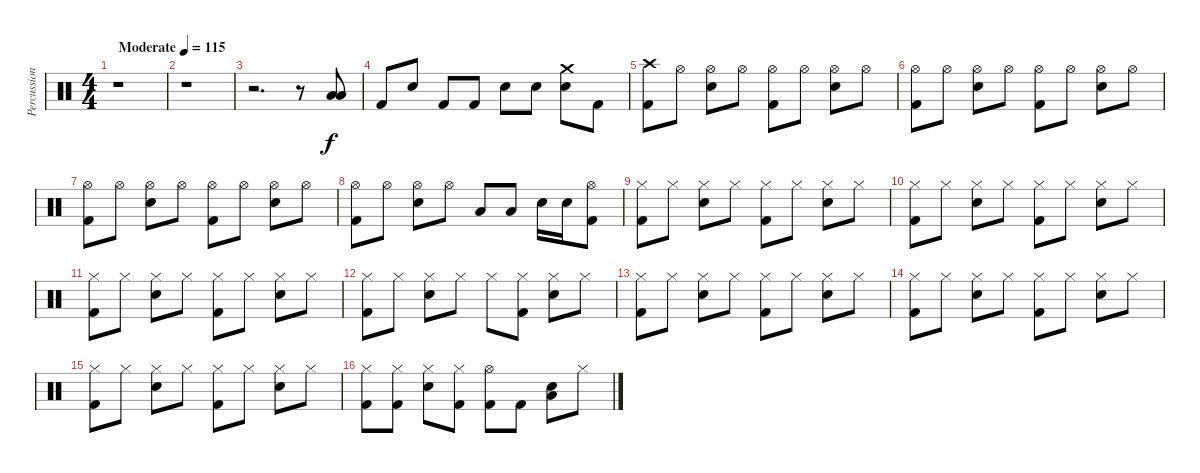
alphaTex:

\track ("Percussion" "Percussion") {instrument percussion}
\staff {score}
\articulation defaults
\ts (4 4)
\tempo (115 "Moderate")
\clef neutral
\ks c
r.1{dy f} |
r.1 |
r.2{d} r.8 ("Low Tom (hit)" "Low Floor Tom (hit)").8 |
"Kick (hit) 2".8 "Electric Snare (hit)".8 "Kick (hit) 2".8 "Kick (hit) 2".8 "Electric Snare (hit)".8 "Electric Snare (hit)".8 ("Crash medium (hit)" "Electric Snare (hit)").8 "Kick (hit) 2".8 |
("Crash high (hit)" "Kick (hit) 2").8 "Hi-Hat (open)".8 ("Hi-Hat (open)" "Electric Snare (hit)").8 "Hi-Hat (open)".8 ("Hi-Hat (open)" "Kick (hit) 2").8 "Hi-Hat (open)".8 ("Hi-Hat (open)" "Electric Snare (hit)").8 "Hi-Hat (open)".8 |
("Hi-Hat (open)" "Kick (hit) 2").8 "Hi-Hat (open)".8 ("Hi-Hat (open)" "Electric Snare (hit)").8 "Hi-Hat (open)".8 ("Hi-Hat (open)" "Kick (hit) 2").8 "Hi-Hat (open)".8 ("Hi-Hat (open)" "Electric Snare (hit)").8 "Hi-Hat (open)".8 |
("Hi-Hat (open)" "Kick (hit) 2").8 "Hi-Hat (open)".8 ("Hi-Hat (open)" "Electric Snare (hit)").8 "Hi-Hat (open)".8 ("Hi-Hat (open)" "Kick (hit) 2").8 "Hi-Hat (open)".8 ("Hi-Hat (open)" "Electric Snare (hit)").8 "Hi-Hat (open)".8 |
("Hi-Hat (open)" "Kick (hit) 2").8 "Hi-Hat (open)".8 ("Hi-Hat (open)" "Electric Snare (hit)").8 "Hi-Hat (open)".8 "Low Tom (hit)".8 "Low Tom (hit)".8 "Electric Snare (hit)".16 "Electric Snare (hit)".16 ("Hi-Hat (open)" "Kick (hit) 2").8 |
("Hi-Hat (closed)" "Kick (hit) 2").8 "Hi-Hat (closed)".8 ("Hi-Hat (closed)" "Electric Snare (hit)").8 "Hi-Hat (closed)".8 ("Hi-Hat (closed)" "Kick (hit) 2").8 "Hi-Hat (closed)".8 ("Hi-Hat (closed)" "Electric Snare (hit)").8 "Hi-Hat (closed)".8 |
("Hi-Hat (closed)" "Kick (hit) 2").8 "Hi-Hat (closed)".8 ("Hi-Hat (closed)" "Electric Snare (hit)").8 "Hi-Hat (closed)".8 ("Hi-Hat (closed)" "Kick (hit) 2").8 "Hi-Hat (closed)".8 ("Hi-Hat (closed)" "Electric Snare (hit)").8 "Hi-Hat (closed)".8 |
("Hi-Hat (closed)" "Kick (hit) 2").8 "Hi-Hat (closed)".8 ("Hi-Hat (closed)" "Electric Snare (hit)").8 "Hi-Hat (closed)".8 ("Hi-Hat (closed)" "Kick (hit) 2").8 "Hi-Hat (closed)".8 ("Hi-Hat (closed)" "Electric Snare (hit)").8 "Hi-Hat (closed)".8 |
("Hi-Hat (closed)" "Kick (hit) 2").8 "Hi-Hat (closed)".8 ("Hi-Hat (closed)" "Electric Snare (hit)").8 "Hi-Hat (closed)".8 "Hi-Hat (closed)".8 ("Hi-Hat (closed)" "Kick (hit) 2").8 ("Hi-Hat (closed)" "Electric Snare (hit)").8 "Hi-Hat (closed)".8 |
("Hi-Hat (closed)" "Kick (hit) 2").8 "Hi-Hat (closed)".8 ("Hi-Hat (closed)" "Electric Snare (hit)").8 "Hi-Hat (closed)".8 ("Hi-Hat (closed)" "Kick (hit) 2").8 "Hi-Hat (closed)".8 ("Hi-Hat (closed)" "Electric Snare (hit)").8 "Hi-Hat (closed)".8 |
("Hi-Hat (closed)" "Kick (hit) 2").8 "Hi-Hat (closed)".8 ("Hi-Hat (closed)" "Electric Snare (hit)").8 "Hi-Hat (closed)".8 ("Hi-Hat (closed)" "Kick (hit) 2").8 "Hi-Hat (closed)".8 ("Hi-Hat (closed)" "Electric Snare (hit)").8 "Hi-Hat (closed)".8 |
("Hi-Hat (closed)" "Kick (hit) 2").8 "Hi-Hat (closed)".8 ("Hi-Hat (closed)" "Electric Snare (hit)").8 "Hi-Hat (closed)".8 ("Hi-Hat (closed)" "Kick (hit) 2").8 "Hi-Hat (closed)".8 ("Hi-Hat (closed)" "Electric Snare (hit)").8 "Hi-Hat (closed)".8 |
("Hi-Hat (closed)" "Kick (hit) 2").8 ("Hi-Hat (closed)" "Kick (hit) 2").8 ("Hi-Hat (closed)" "Electric Snare (hit)").8 ("Hi-Hat (closed)" "Kick (hit) 2").8 ("Hi-Hat (open)" "Kick (hit) 2").8 "Kick (hit) 2".8 ("Low Tom (hit)" "Electric Snare (hit)").8 "Hi-Hat (closed)".8
